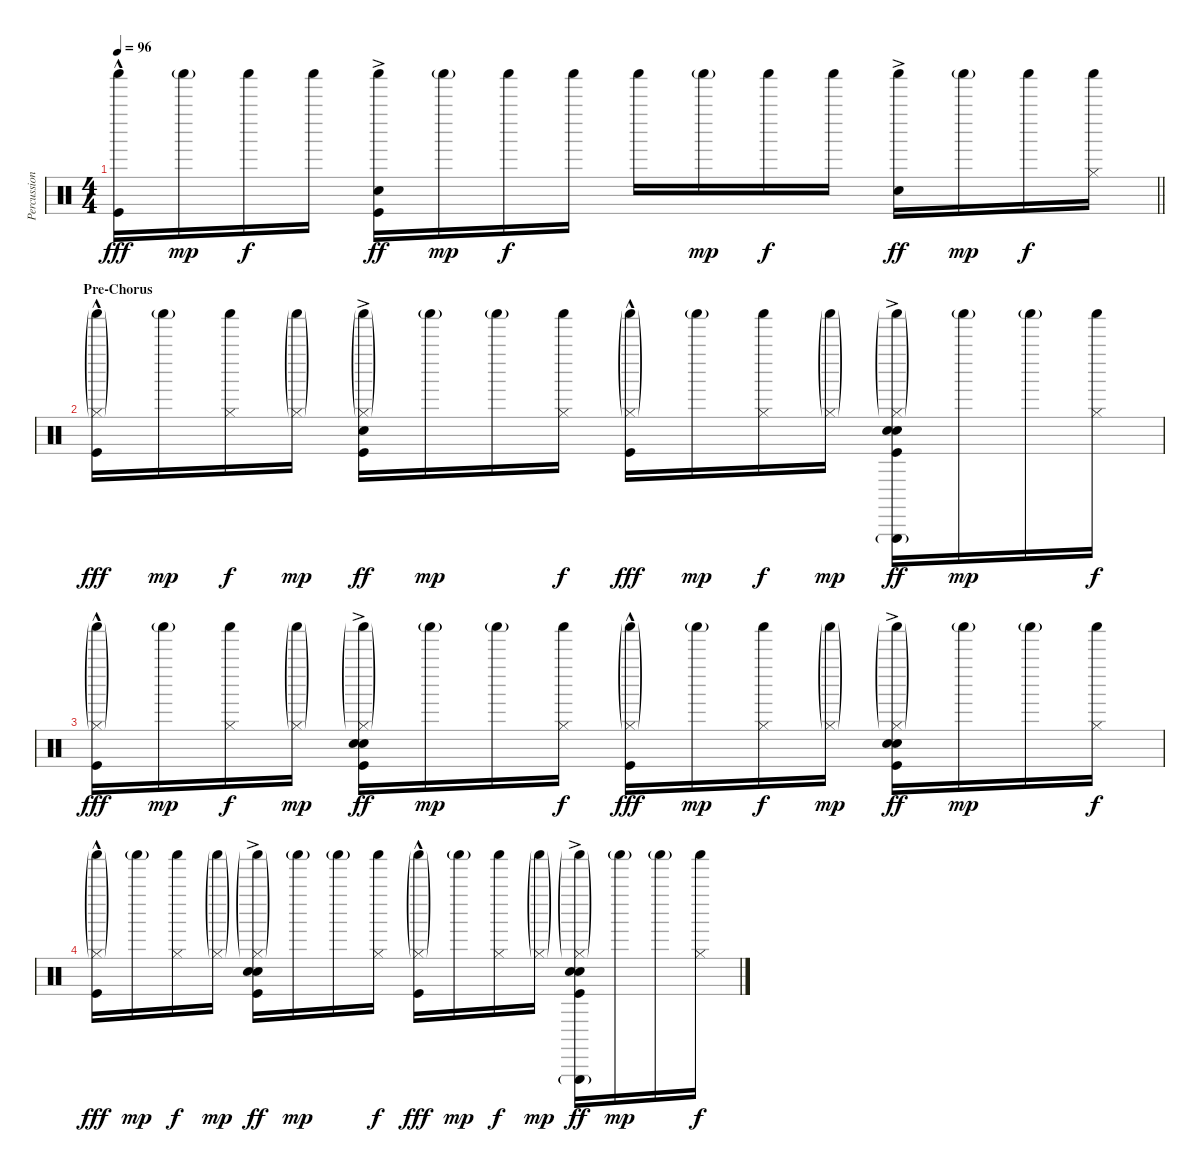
\track ("Percussion" "Percussion") {instrument percussion}
\staff {score}
\articulation defaults
\ts (4 4)
\tempo 96
\clef neutral
\barLineRight lightlight
\ks c
("Shaker (hit)" "Kick (hit)"{hac}).16{dy fff} "Shaker (hit)"{g}.16{dy mp} "Shaker (hit)".16{dy f} "Shaker (hit)".16 ("Shaker (hit)" "Snare (hit) 2"{ac} "Kick (hit)"{ac}).16{dy ff} "Shaker (hit)"{g}.16{dy mp} "Shaker (hit)".16{dy f} "Shaker (hit)".16 "Shaker (hit)".16 "Shaker (hit)"{g}.16{dy mp} "Shaker (hit)".16{dy f} "Shaker (hit)".16 ("Shaker (hit)" "Snare (hit) 2"{ac}).16{dy ff} "Shaker (hit)"{g}.16{dy mp} "Shaker (hit)".16{dy f} ("Shaker (hit)" "Hi-Hat (closed)").16 |
\section ("" "Pre-Chorus")
("Shaker (hit)"{g} "Hi-Hat (closed)"{g} "Kick (hit)"{hac}).16{dy fff} "Shaker (hit)"{g}.16{dy mp} ("Shaker (hit)" "Hi-Hat (closed)").16{dy f} ("Shaker (hit)"{g} "Hi-Hat (closed)"{g}).16{dy mp} ("Shaker (hit)"{g} "Hi-Hat (closed)"{g} "Snare (hit) 2"{ac} "Kick (hit)"{ac}).16{dy ff} "Shaker (hit)"{g}.16{dy mp} "Shaker (hit)"{g}.16 ("Shaker (hit)" "Hi-Hat (closed)").16{dy f} ("Shaker (hit)"{g} "Hi-Hat (closed)"{g} "Kick (hit)"{hac}).16{dy fff} "Shaker (hit)"{g}.16{dy mp} ("Shaker (hit)" "Hi-Hat (closed)").16{dy f} ("Shaker (hit)"{g} "Hi-Hat (closed)"{g}).16{dy mp} ("Triangle (hit)"{g} "Shaker (hit)"{g} "Hi-Hat (closed)"{g} "Hand Clap (hit)"{ac} "Snare (hit) 2"{ac} "Kick (hit)"{ac}).16{dy ff} "Shaker (hit)"{g}.16{dy mp} "Shaker (hit)"{g}.16 ("Shaker (hit)" "Hi-Hat (closed)").16{dy f} |
("Shaker (hit)"{g} "Hi-Hat (closed)"{g} "Kick (hit)"{hac}).16{dy fff} "Shaker (hit)"{g}.16{dy mp} ("Shaker (hit)" "Hi-Hat (closed)").16{dy f} ("Shaker (hit)"{g} "Hi-Hat (closed)"{g}).16{dy mp} ("Shaker (hit)"{g} "Hi-Hat (closed)"{g} "Hand Clap (hit)"{ac} "Snare (hit) 2"{ac} "Kick (hit)"{ac}).16{dy ff} "Shaker (hit)"{g}.16{dy mp} "Shaker (hit)"{g}.16 ("Shaker (hit)" "Hi-Hat (closed)").16{dy f} ("Shaker (hit)"{g} "Hi-Hat (closed)"{g} "Kick (hit)"{hac}).16{dy fff} "Shaker (hit)"{g}.16{dy mp} ("Shaker (hit)" "Hi-Hat (closed)").16{dy f} ("Shaker (hit)"{g} "Hi-Hat (closed)"{g}).16{dy mp} ("Shaker (hit)"{g} "Hi-Hat (closed)"{g} "Hand Clap (hit)"{ac} "Snare (hit) 2"{ac} "Kick (hit)"{ac}).16{dy ff} "Shaker (hit)"{g}.16{dy mp} "Shaker (hit)"{g}.16 ("Shaker (hit)" "Hi-Hat (closed)").16{dy f} |
("Shaker (hit)"{g} "Hi-Hat (closed)"{g} "Kick (hit)"{hac}).16{dy fff} "Shaker (hit)"{g}.16{dy mp} ("Shaker (hit)" "Hi-Hat (closed)").16{dy f} ("Shaker (hit)"{g} "Hi-Hat (closed)"{g}).16{dy mp} ("Shaker (hit)"{g} "Hi-Hat (closed)"{g} "Hand Clap (hit)"{ac} "Snare (hit) 2"{ac} "Kick (hit)"{ac}).16{dy ff} "Shaker (hit)"{g}.16{dy mp} "Shaker (hit)"{g}.16 ("Shaker (hit)" "Hi-Hat (closed)").16{dy f} ("Shaker (hit)"{g} "Hi-Hat (closed)"{g} "Kick (hit)"{hac}).16{dy fff} "Shaker (hit)"{g}.16{dy mp} ("Shaker (hit)" "Hi-Hat (closed)").16{dy f} ("Shaker (hit)"{g} "Hi-Hat (closed)"{g}).16{dy mp} ("Triangle (hit)"{g} "Shaker (hit)"{g} "Hi-Hat (closed)"{g} "Hand Clap (hit)"{ac} "Snare (hit) 2"{ac} "Kick (hit)"{ac}).16{dy ff} "Shaker (hit)"{g}.16{dy mp} "Shaker (hit)"{g}.16 ("Shaker (hit)" "Hi-Hat (closed)").16{dy f}
